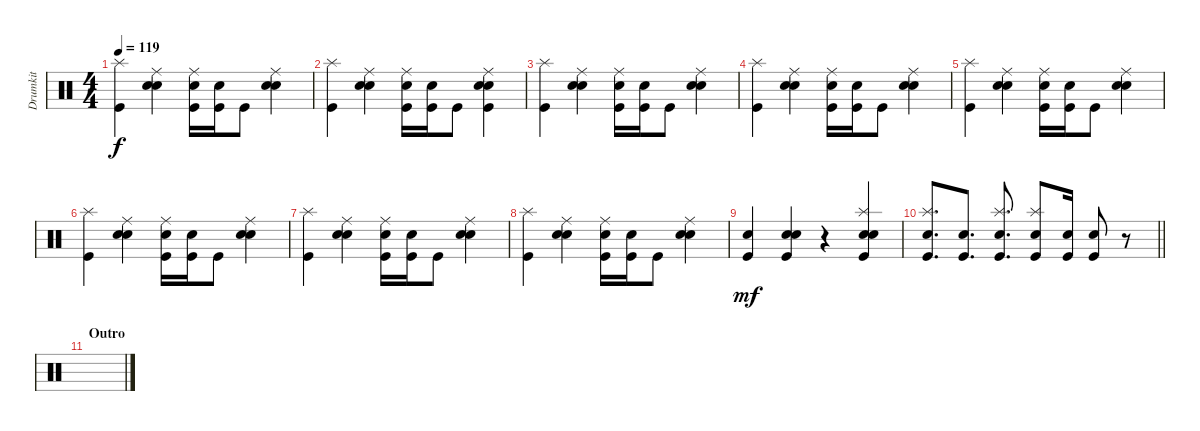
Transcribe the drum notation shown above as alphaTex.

\track ("Drumkit" "Drumkit") {instrument percussion}
\staff {score}
\articulation defaults
\ts (4 4)
\tempo 119
\clef neutral
\ks c
("Kick (hit)" "Splash (hit)").4{dy f} ("Hand Clap (hit)" "Snare (hit) 2" "Ride (middle)").4 ("Kick (hit)" "Snare (hit) 2" "Ride (middle)").16 ("Kick (hit)" "Snare (hit) 2").16 "Kick (hit)".8 ("Hand Clap (hit)" "Snare (hit) 2" "Ride (middle)").4 |
("Kick (hit)" "Splash (hit)").4 ("Hand Clap (hit)" "Snare (hit) 2" "Ride (middle)").4 ("Kick (hit)" "Snare (hit) 2" "Ride (middle)").16 ("Kick (hit)" "Snare (hit) 2").16 "Kick (hit)".8 ("Hand Clap (hit)" "Snare (hit) 2" "Ride (middle)" "Kick (hit)").4 |
("Kick (hit)" "Splash (hit)").4 ("Hand Clap (hit)" "Snare (hit) 2" "Ride (middle)").4 ("Kick (hit)" "Snare (hit) 2" "Ride (middle)").16 ("Kick (hit)" "Snare (hit) 2").16 "Kick (hit)".8 ("Hand Clap (hit)" "Snare (hit) 2" "Ride (middle)").4 |
("Kick (hit)" "Splash (hit)").4 ("Hand Clap (hit)" "Snare (hit) 2" "Ride (middle)").4 ("Kick (hit)" "Snare (hit) 2" "Ride (middle)").16 ("Kick (hit)" "Snare (hit) 2").16 "Kick (hit)".8 ("Hand Clap (hit)" "Snare (hit) 2" "Ride (middle)").4 |
("Kick (hit)" "Splash (hit)").4 ("Hand Clap (hit)" "Snare (hit) 2" "Ride (middle)").4 ("Kick (hit)" "Snare (hit) 2" "Ride (middle)").16 ("Kick (hit)" "Snare (hit) 2").16 "Kick (hit)".8 ("Hand Clap (hit)" "Snare (hit) 2" "Ride (middle)").4 |
("Kick (hit)" "Splash (hit)").4 ("Hand Clap (hit)" "Snare (hit) 2" "Ride (middle)").4 ("Kick (hit)" "Snare (hit) 2" "Ride (middle)").16 ("Kick (hit)" "Snare (hit) 2").16 "Kick (hit)".8 ("Hand Clap (hit)" "Snare (hit) 2" "Ride (middle)").4 |
("Kick (hit)" "Splash (hit)").4 ("Hand Clap (hit)" "Snare (hit) 2" "Ride (middle)").4 ("Kick (hit)" "Snare (hit) 2" "Ride (middle)").16 ("Kick (hit)" "Snare (hit) 2").16 "Kick (hit)".8 ("Hand Clap (hit)" "Snare (hit) 2" "Ride (middle)").4 |
("Kick (hit)" "Splash (hit)").4 ("Hand Clap (hit)" "Snare (hit) 2" "Ride (middle)").4 ("Kick (hit)" "Snare (hit) 2" "Ride (middle)").16 ("Kick (hit)" "Snare (hit) 2").16 "Kick (hit)".8 ("Hand Clap (hit)" "Snare (hit) 2" "Ride (middle)").4 |
("Kick (hit)" "Snare (hit) 2").4{dy mf} ("Hand Clap (hit)" "Kick (hit)" "Snare (hit) 2").4 r.4 ("Hand Clap (hit)" "Kick (hit)" "Snare (hit) 2" "Splash (hit)").4 |
\barLineRight lightlight
("Kick (hit)" "Splash (hit)" "Snare (hit) 2").8{d} ("Kick (hit)" "Snare (hit) 2").8{d} ("Kick (hit)" "Splash (hit)" "Snare (hit) 2").8{d} ("Kick (hit)" "Splash (hit)" "Snare (hit) 2").8 ("Kick (hit)" "Snare (hit) 2").16 ("Kick (hit)" "Snare (hit) 2").8 r.8 |
\section ("" "Outro")
